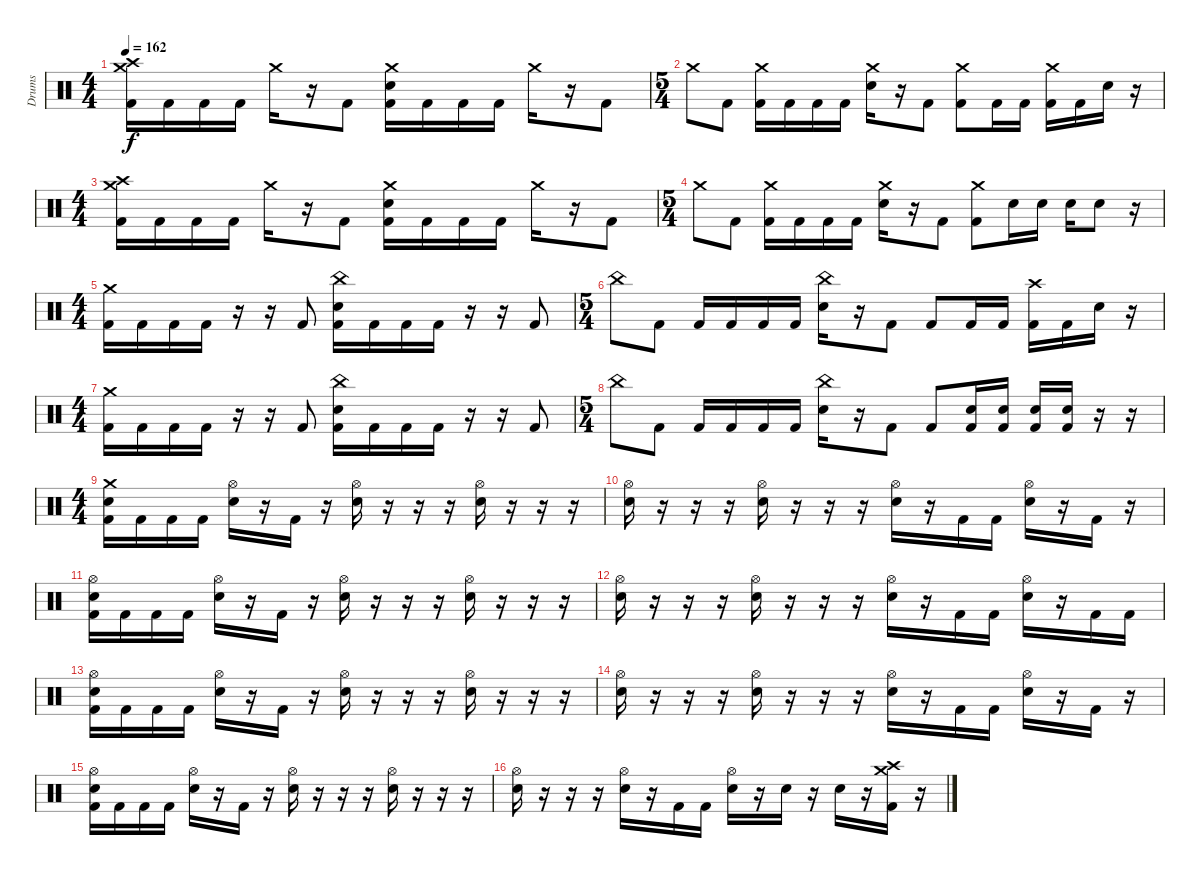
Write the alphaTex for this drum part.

\track ("Drums" "Drums") {instrument percussion}
\staff {score}
\articulation defaults
\ts (4 4)
\tempo 162
\clef neutral
\ks c
("Crash medium (hit)" "Crash high (hit)" "Kick (hit) 2").16{dy f} "Kick (hit) 2".16 "Kick (hit) 2".16 "Kick (hit) 2".16 "Crash medium (hit)".16 r.16 "Kick (hit) 2".8 ("Crash medium (hit)" "Electric Snare (hit)" "Kick (hit) 2").16 "Kick (hit) 2".16 "Kick (hit) 2".16 "Kick (hit) 2".16 "Crash medium (hit)".16 r.16 "Kick (hit) 2".8 |
\ts (5 4)
"Crash medium (hit)".8 "Kick (hit) 2".8 ("Crash medium (hit)" "Kick (hit) 2").16 "Kick (hit) 2".16 "Kick (hit) 2".16 "Kick (hit) 2".16 ("Crash medium (hit)" "Electric Snare (hit)").16 r.16 "Kick (hit) 2".8 ("Crash medium (hit)" "Kick (hit) 2").8 "Kick (hit) 2".16 "Kick (hit) 2".16 ("Crash medium (hit)" "Kick (hit) 2").16 "Kick (hit) 2".16 "Electric Snare (hit)".16 r.16 |
\ts (4 4)
("Crash medium (hit)" "Crash high (hit)" "Kick (hit) 2").16 "Kick (hit) 2".16 "Kick (hit) 2".16 "Kick (hit) 2".16 "Crash medium (hit)".16 r.16 "Kick (hit) 2".8 ("Crash medium (hit)" "Electric Snare (hit)" "Kick (hit) 2").16 "Kick (hit) 2".16 "Kick (hit) 2".16 "Kick (hit) 2".16 "Crash medium (hit)".16 r.16 "Kick (hit) 2".8 |
\ts (5 4)
"Crash medium (hit)".8 "Kick (hit) 2".8 ("Crash medium (hit)" "Kick (hit) 2").16 "Kick (hit) 2".16 "Kick (hit) 2".16 "Kick (hit) 2".16 ("Crash medium (hit)" "Electric Snare (hit)").16 r.16 "Kick (hit) 2".8 ("Crash medium (hit)" "Kick (hit) 2").8 "Electric Snare (hit)".16 "Electric Snare (hit)".16 "Electric Snare (hit)".16 "Electric Snare (hit)".8 r.16 |
\ts (4 4)
("Crash medium (hit)" "Kick (hit) 2").16 "Kick (hit) 2".16 "Kick (hit) 2".16 "Kick (hit) 2".16 r.16 r.16 "Kick (hit) 2".8 ("China (hit)" "Electric Snare (hit)" "Kick (hit) 2").16 "Kick (hit) 2".16 "Kick (hit) 2".16 "Kick (hit) 2".16 r.16 r.16 "Kick (hit) 2".8 |
\ts (5 4)
"China (hit)".8 "Kick (hit) 2".8 "Kick (hit) 2".16 "Kick (hit) 2".16 "Kick (hit) 2".16 "Kick (hit) 2".16 ("China (hit)" "Electric Snare (hit)").16 r.16 "Kick (hit) 2".8 "Kick (hit) 2".8 "Kick (hit) 2".16 "Kick (hit) 2".16 ("Crash high (hit)" "Kick (hit) 2").16 "Kick (hit) 2".16 "Electric Snare (hit)".16 r.16 |
\ts (4 4)
("Crash medium (hit)" "Kick (hit) 2").16 "Kick (hit) 2".16 "Kick (hit) 2".16 "Kick (hit) 2".16 r.16 r.16 "Kick (hit) 2".8 ("China (hit)" "Electric Snare (hit)" "Kick (hit) 2").16 "Kick (hit) 2".16 "Kick (hit) 2".16 "Kick (hit) 2".16 r.16 r.16 "Kick (hit) 2".8 |
\ts (5 4)
"China (hit)".8 "Kick (hit) 2".8 "Kick (hit) 2".16 "Kick (hit) 2".16 "Kick (hit) 2".16 "Kick (hit) 2".16 ("China (hit)" "Electric Snare (hit)").16 r.16 "Kick (hit) 2".8 "Kick (hit) 2".8 ("Electric Snare (hit)" "Kick (hit) 2").16 ("Electric Snare (hit)" "Kick (hit) 2").16 ("Electric Snare (hit)" "Kick (hit) 2").16 ("Electric Snare (hit)" "Kick (hit) 2").16 r.16 r.16 |
\ts (4 4)
("Crash medium (hit)" "Electric Snare (hit)" "Kick (hit) 2").16 "Kick (hit) 2".16 "Kick (hit) 2".16 "Kick (hit) 2".16 ("Hi-Hat (open)" "Electric Snare (hit)").16 r.16 "Kick (hit) 2".16 r.16 ("Hi-Hat (open)" "Electric Snare (hit)").16 r.16 r.16 r.16 ("Hi-Hat (open)" "Electric Snare (hit)").16 r.16 r.16 r.16 |
("Hi-Hat (open)" "Electric Snare (hit)").16 r.16 r.16 r.16 ("Hi-Hat (open)" "Electric Snare (hit)").16 r.16 r.16 r.16 ("Hi-Hat (open)" "Electric Snare (hit)").16 r.16 "Kick (hit) 2".16 "Kick (hit) 2".16 ("Hi-Hat (open)" "Electric Snare (hit)").16 r.16 "Kick (hit) 2".16 r.16 |
("Hi-Hat (open)" "Electric Snare (hit)" "Kick (hit) 2").16 "Kick (hit) 2".16 "Kick (hit) 2".16 "Kick (hit) 2".16 ("Hi-Hat (open)" "Electric Snare (hit)").16 r.16 "Kick (hit) 2".16 r.16 ("Hi-Hat (open)" "Electric Snare (hit)").16 r.16 r.16 r.16 ("Hi-Hat (open)" "Electric Snare (hit)").16 r.16 r.16 r.16 |
("Hi-Hat (open)" "Electric Snare (hit)").16 r.16 r.16 r.16 ("Hi-Hat (open)" "Electric Snare (hit)").16 r.16 r.16 r.16 ("Hi-Hat (open)" "Electric Snare (hit)").16 r.16 "Kick (hit) 2".16 "Kick (hit) 2".16 ("Hi-Hat (open)" "Electric Snare (hit)").16 r.16 "Kick (hit) 2".16 "Kick (hit) 2".16 |
("Hi-Hat (open)" "Electric Snare (hit)" "Kick (hit) 2").16 "Kick (hit) 2".16 "Kick (hit) 2".16 "Kick (hit) 2".16 ("Hi-Hat (open)" "Electric Snare (hit)").16 r.16 "Kick (hit) 2".16 r.16 ("Hi-Hat (open)" "Electric Snare (hit)").16 r.16 r.16 r.16 ("Hi-Hat (open)" "Electric Snare (hit)").16 r.16 r.16 r.16 |
("Hi-Hat (open)" "Electric Snare (hit)").16 r.16 r.16 r.16 ("Hi-Hat (open)" "Electric Snare (hit)").16 r.16 r.16 r.16 ("Hi-Hat (open)" "Electric Snare (hit)").16 r.16 "Kick (hit) 2".16 "Kick (hit) 2".16 ("Hi-Hat (open)" "Electric Snare (hit)").16 r.16 "Kick (hit) 2".16 r.16 |
("Hi-Hat (open)" "Electric Snare (hit)" "Kick (hit) 2").16 "Kick (hit) 2".16 "Kick (hit) 2".16 "Kick (hit) 2".16 ("Hi-Hat (open)" "Electric Snare (hit)").16 r.16 "Kick (hit) 2".16 r.16 ("Hi-Hat (open)" "Electric Snare (hit)").16 r.16 r.16 r.16 ("Hi-Hat (open)" "Electric Snare (hit)").16 r.16 r.16 r.16 |
("Hi-Hat (open)" "Electric Snare (hit)").16 r.16 r.16 r.16 ("Hi-Hat (open)" "Electric Snare (hit)").16 r.16 "Kick (hit) 2".16 "Kick (hit) 2".16 ("Hi-Hat (open)" "Electric Snare (hit)").16 r.16 "Electric Snare (hit)".16 r.16 "Electric Snare (hit)".16 r.16 ("Crash medium (hit)" "Crash high (hit)" "Kick (hit) 2").16 r.16
